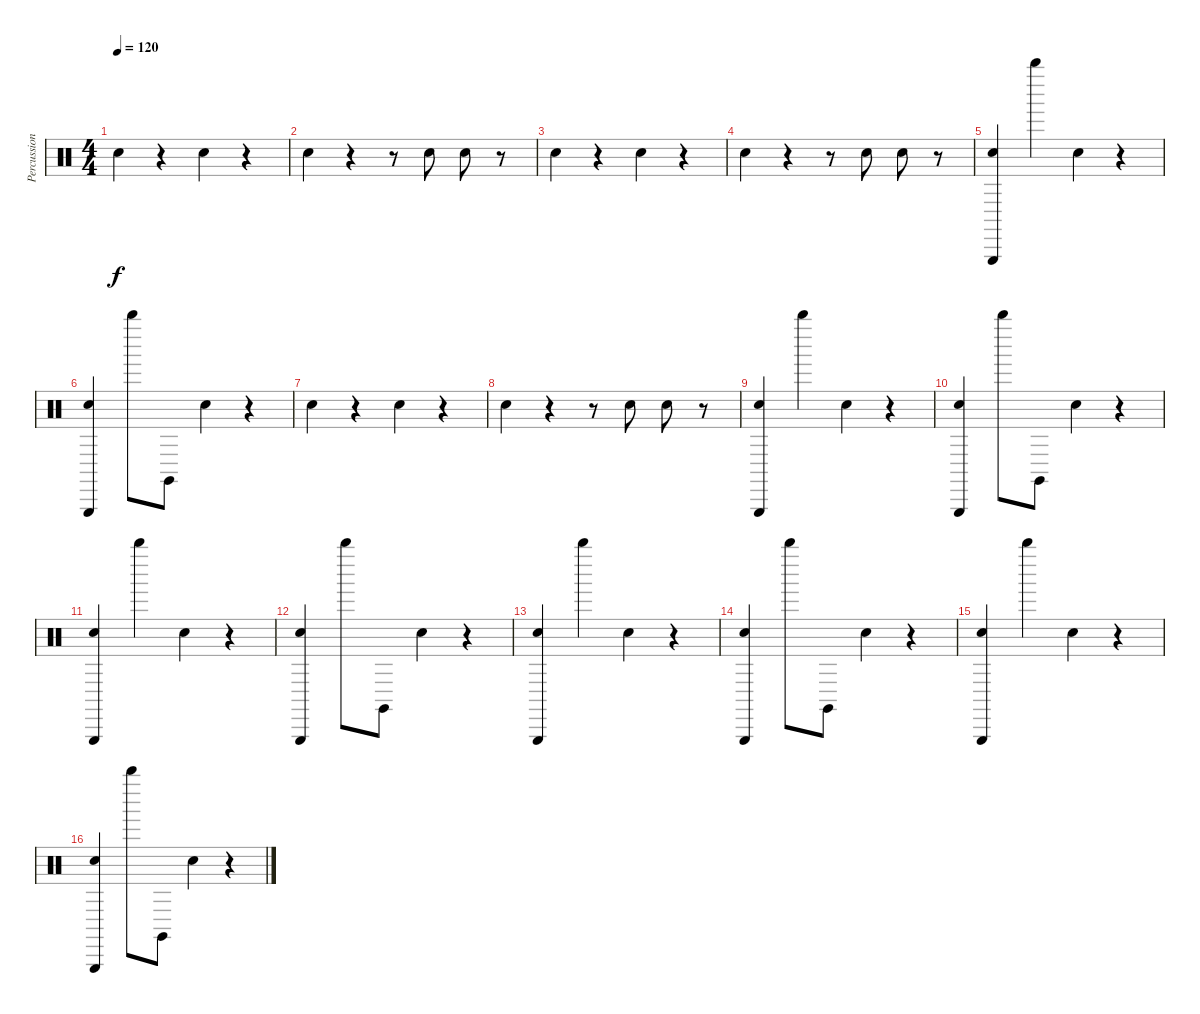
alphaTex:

\track ("Percussions" "Percussion") {instrument percussion}
\staff {score}
\articulation defaults
\ts (4 4)
\tempo 120
\clef neutral
\ks c "Hand Clap (hit)".4{dy f}
r.4 "Hand Clap (hit)".4 r.4 |
"Hand Clap (hit)".4 r.4 r.8 "Hand Clap (hit)".8 "Hand Clap (hit)".8 r.8 |
"Hand Clap (hit)".4 r.4 "Hand Clap (hit)".4 r.4 |
"Hand Clap (hit)".4 r.4 r.8 "Hand Clap (hit)".8 "Hand Clap (hit)".8 r.8 |
("Hand Clap (hit)" "Triangle (hit)").4 "Whistle high (hit)".4 "Hand Clap (hit)".4 r.4 |
("Hand Clap (hit)" "Triangle (hit)").4 "Whistle high (hit)".8 "Claves (hit)".8 "Hand Clap (hit)".4 r.4 |
"Hand Clap (hit)".4 r.4 "Hand Clap (hit)".4 r.4 |
"Hand Clap (hit)".4 r.4 r.8 "Hand Clap (hit)".8 "Hand Clap (hit)".8 r.8 |
("Hand Clap (hit)" "Triangle (hit)").4 "Whistle high (hit)".4 "Hand Clap (hit)".4 r.4 |
("Hand Clap (hit)" "Triangle (hit)").4 "Whistle high (hit)".8 "Claves (hit)".8 "Hand Clap (hit)".4 r.4 |
("Hand Clap (hit)" "Triangle (hit)").4 "Whistle high (hit)".4 "Hand Clap (hit)".4 r.4 |
("Hand Clap (hit)" "Triangle (hit)").4 "Whistle high (hit)".8 "Claves (hit)".8 "Hand Clap (hit)".4 r.4 |
("Hand Clap (hit)" "Triangle (hit)").4 "Whistle high (hit)".4 "Hand Clap (hit)".4 r.4 |
("Hand Clap (hit)" "Triangle (hit)").4 "Whistle high (hit)".8 "Claves (hit)".8 "Hand Clap (hit)".4 r.4 |
("Hand Clap (hit)" "Triangle (hit)").4 "Whistle high (hit)".4 "Hand Clap (hit)".4 r.4 |
("Hand Clap (hit)" "Triangle (hit)").4 "Whistle high (hit)".8 "Claves (hit)".8 "Hand Clap (hit)".4 r.4
